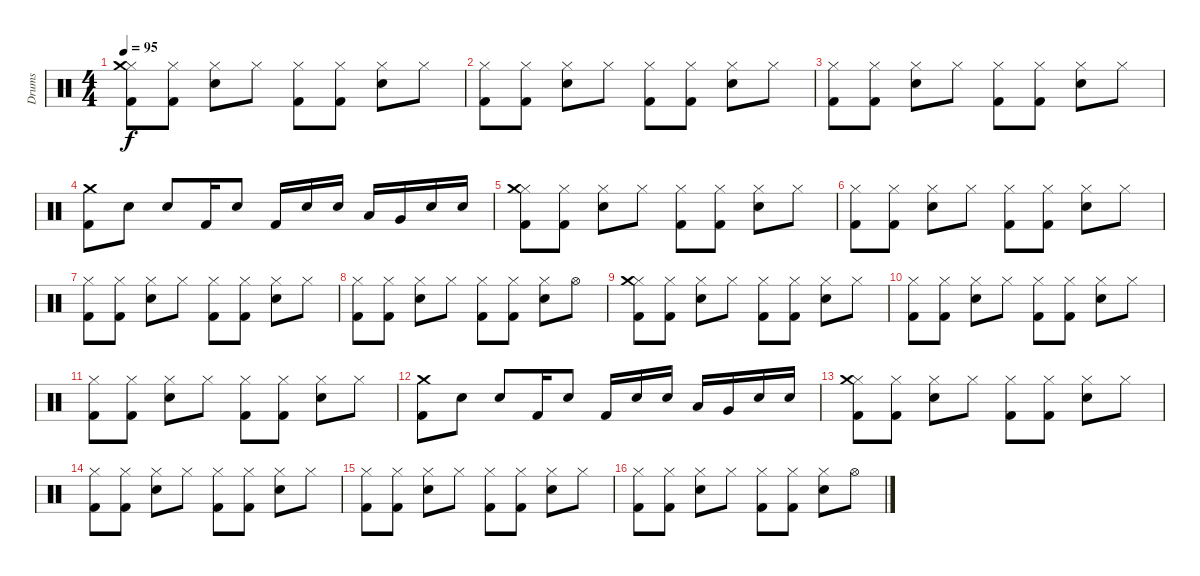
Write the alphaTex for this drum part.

\track ("Drums" "Drums") {instrument percussion}
\staff {score}
\articulation defaults
\ts (4 4)
\tempo 95
\clef neutral
\ks c
("Hi-Hat (closed)" "Crash medium (hit)" "Kick (hit) 2").8{dy f} ("Hi-Hat (closed)" "Kick (hit) 2").8 ("Hi-Hat (closed)" "Snare (hit) 2").8 "Hi-Hat (closed)".8 ("Hi-Hat (closed)" "Kick (hit) 2").8 ("Hi-Hat (closed)" "Kick (hit) 2").8 ("Hi-Hat (closed)" "Snare (hit) 2").8 "Hi-Hat (closed)".8 |
("Hi-Hat (closed)" "Kick (hit) 2").8 ("Hi-Hat (closed)" "Kick (hit) 2").8 ("Hi-Hat (closed)" "Snare (hit) 2").8 "Hi-Hat (closed)".8 ("Hi-Hat (closed)" "Kick (hit) 2").8 ("Hi-Hat (closed)" "Kick (hit) 2").8 ("Hi-Hat (closed)" "Snare (hit) 2").8 "Hi-Hat (closed)".8 |
("Hi-Hat (closed)" "Kick (hit) 2").8 ("Hi-Hat (closed)" "Kick (hit) 2").8 ("Hi-Hat (closed)" "Snare (hit) 2").8 "Hi-Hat (closed)".8 ("Hi-Hat (closed)" "Kick (hit) 2").8 ("Hi-Hat (closed)" "Kick (hit) 2").8 ("Hi-Hat (closed)" "Snare (hit) 2").8 "Hi-Hat (closed)".8 |
("Crash medium (hit)" "Kick (hit) 2").8 "Snare (hit) 2".8 "Snare (hit) 2".8 "Kick (hit) 2".16 "Snare (hit) 2".8 "Kick (hit) 2".16 "Snare (hit) 2".16 "Snare (hit) 2".16 "Low Tom (hit)".16 "Very Low Tom (hit)".16 "Snare (hit) 2".16 "Snare (hit) 2".16 |
("Hi-Hat (closed)" "Crash medium (hit)" "Kick (hit) 2").8 ("Hi-Hat (closed)" "Kick (hit) 2").8 ("Hi-Hat (closed)" "Snare (hit) 2").8 "Hi-Hat (closed)".8 ("Hi-Hat (closed)" "Kick (hit) 2").8 ("Hi-Hat (closed)" "Kick (hit) 2").8 ("Hi-Hat (closed)" "Snare (hit) 2").8 "Hi-Hat (closed)".8 |
("Hi-Hat (closed)" "Kick (hit) 2").8 ("Hi-Hat (closed)" "Kick (hit) 2").8 ("Hi-Hat (closed)" "Snare (hit) 2").8 "Hi-Hat (closed)".8 ("Hi-Hat (closed)" "Kick (hit) 2").8 ("Hi-Hat (closed)" "Kick (hit) 2").8 ("Hi-Hat (closed)" "Snare (hit) 2").8 "Hi-Hat (closed)".8 |
("Hi-Hat (closed)" "Kick (hit) 2").8 ("Hi-Hat (closed)" "Kick (hit) 2").8 ("Hi-Hat (closed)" "Snare (hit) 2").8 "Hi-Hat (closed)".8 ("Hi-Hat (closed)" "Kick (hit) 2").8 ("Hi-Hat (closed)" "Kick (hit) 2").8 ("Hi-Hat (closed)" "Snare (hit) 2").8 "Hi-Hat (closed)".8 |
("Hi-Hat (closed)" "Kick (hit) 2").8 ("Hi-Hat (closed)" "Kick (hit) 2").8 ("Hi-Hat (closed)" "Snare (hit) 2").8 "Hi-Hat (closed)".8 ("Hi-Hat (closed)" "Kick (hit) 2").8 ("Hi-Hat (closed)" "Kick (hit) 2").8 ("Hi-Hat (closed)" "Snare (hit) 2").8 "Hi-Hat (open)".8 |
("Hi-Hat (closed)" "Crash medium (hit)" "Kick (hit) 2").8 ("Hi-Hat (closed)" "Kick (hit) 2").8 ("Hi-Hat (closed)" "Snare (hit) 2").8 "Hi-Hat (closed)".8 ("Hi-Hat (closed)" "Kick (hit) 2").8 ("Hi-Hat (closed)" "Kick (hit) 2").8 ("Hi-Hat (closed)" "Snare (hit) 2").8 "Hi-Hat (closed)".8 |
("Hi-Hat (closed)" "Kick (hit) 2").8 ("Hi-Hat (closed)" "Kick (hit) 2").8 ("Hi-Hat (closed)" "Snare (hit) 2").8 "Hi-Hat (closed)".8 ("Hi-Hat (closed)" "Kick (hit) 2").8 ("Hi-Hat (closed)" "Kick (hit) 2").8 ("Hi-Hat (closed)" "Snare (hit) 2").8 "Hi-Hat (closed)".8 |
("Hi-Hat (closed)" "Kick (hit) 2").8 ("Hi-Hat (closed)" "Kick (hit) 2").8 ("Hi-Hat (closed)" "Snare (hit) 2").8 "Hi-Hat (closed)".8 ("Hi-Hat (closed)" "Kick (hit) 2").8 ("Hi-Hat (closed)" "Kick (hit) 2").8 ("Hi-Hat (closed)" "Snare (hit) 2").8 "Hi-Hat (closed)".8 |
("Crash medium (hit)" "Kick (hit) 2").8 "Snare (hit) 2".8 "Snare (hit) 2".8 "Kick (hit) 2".16 "Snare (hit) 2".8 "Kick (hit) 2".16 "Snare (hit) 2".16 "Snare (hit) 2".16 "Low Tom (hit)".16 "Very Low Tom (hit)".16 "Snare (hit) 2".16 "Snare (hit) 2".16 |
("Hi-Hat (closed)" "Crash medium (hit)" "Kick (hit) 2").8{volume 10} ("Hi-Hat (closed)" "Kick (hit) 2").8 ("Hi-Hat (closed)" "Snare (hit) 2").8 "Hi-Hat (closed)".8 ("Hi-Hat (closed)" "Kick (hit) 2").8 ("Hi-Hat (closed)" "Kick (hit) 2").8 ("Hi-Hat (closed)" "Snare (hit) 2").8 "Hi-Hat (closed)".8 |
("Hi-Hat (closed)" "Kick (hit) 2").8 ("Hi-Hat (closed)" "Kick (hit) 2").8 ("Hi-Hat (closed)" "Snare (hit) 2").8 "Hi-Hat (closed)".8 ("Hi-Hat (closed)" "Kick (hit) 2").8 ("Hi-Hat (closed)" "Kick (hit) 2").8 ("Hi-Hat (closed)" "Snare (hit) 2").8 "Hi-Hat (closed)".8 |
("Hi-Hat (closed)" "Kick (hit) 2").8 ("Hi-Hat (closed)" "Kick (hit) 2").8 ("Hi-Hat (closed)" "Snare (hit) 2").8 "Hi-Hat (closed)".8 ("Hi-Hat (closed)" "Kick (hit) 2").8 ("Hi-Hat (closed)" "Kick (hit) 2").8 ("Hi-Hat (closed)" "Snare (hit) 2").8 "Hi-Hat (closed)".8 |
("Hi-Hat (closed)" "Kick (hit) 2").8 ("Hi-Hat (closed)" "Kick (hit) 2").8 ("Hi-Hat (closed)" "Snare (hit) 2").8 "Hi-Hat (closed)".8 ("Hi-Hat (closed)" "Kick (hit) 2").8 ("Hi-Hat (closed)" "Kick (hit) 2").8 ("Hi-Hat (closed)" "Snare (hit) 2").8 "Hi-Hat (open)".8
